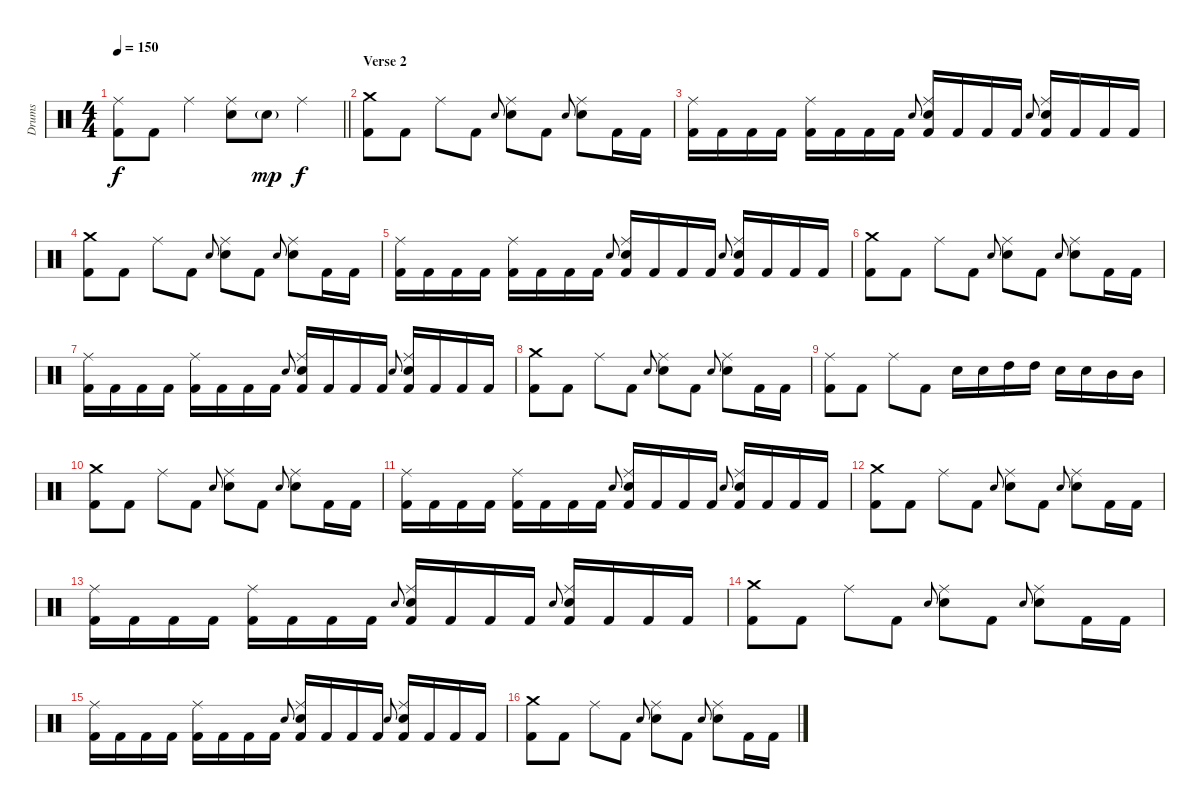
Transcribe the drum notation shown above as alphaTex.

\track ("Drums" "Drums") {instrument percussion}
\staff {score}
\articulation defaults
\ts (4 4)
\tempo 150
\clef neutral
\barLineRight lightlight
\ks c
("Kick (hit) 2" "Ride (middle)").8{dy f} "Kick (hit) 2".8 "Ride (middle)".4 ("Snare (hit) 2" "Ride (middle)").8 "Snare (hit) 2"{g}.8{dy mp} "Ride (middle)".4{dy f} |
\section ("" "Verse 2")
("Kick (hit) 2" "Crash medium (hit)").8 "Kick (hit) 2".8 "Ride (middle)".8 "Kick (hit) 2".8 "Snare (hit) 2".8{gr onbeat} ("Snare (hit) 2" "Ride (middle)").8 "Kick (hit) 2".8 "Snare (hit) 2".8{gr onbeat} ("Snare (hit) 2" "Ride (middle)").8 "Kick (hit) 2".16 "Kick (hit) 2".16 |
("Kick (hit) 2" "Ride (middle)").16 "Kick (hit) 2".16 "Kick (hit) 2".16 "Kick (hit) 2".16 ("Kick (hit) 2" "Ride (middle)").16 "Kick (hit) 2".16 "Kick (hit) 2".16 "Kick (hit) 2".16 "Snare (hit) 2".8{gr onbeat} ("Kick (hit) 2" "Snare (hit) 2" "Ride (middle)").16 "Kick (hit) 2".16 "Kick (hit) 2".16 "Kick (hit) 2".16 "Snare (hit) 2".8{gr onbeat} ("Kick (hit) 2" "Snare (hit) 2" "Ride (middle)").16 "Kick (hit) 2".16 "Kick (hit) 2".16 "Kick (hit) 2".16 |
("Kick (hit) 2" "Crash medium (hit)").8 "Kick (hit) 2".8 "Ride (middle)".8 "Kick (hit) 2".8 "Snare (hit) 2".8{gr onbeat} ("Snare (hit) 2" "Ride (middle)").8 "Kick (hit) 2".8 "Snare (hit) 2".8{gr onbeat} ("Snare (hit) 2" "Ride (middle)").8 "Kick (hit) 2".16 "Kick (hit) 2".16 |
("Kick (hit) 2" "Ride (middle)").16 "Kick (hit) 2".16 "Kick (hit) 2".16 "Kick (hit) 2".16 ("Kick (hit) 2" "Ride (middle)").16 "Kick (hit) 2".16 "Kick (hit) 2".16 "Kick (hit) 2".16 "Snare (hit) 2".8{gr onbeat} ("Kick (hit) 2" "Snare (hit) 2" "Ride (middle)").16 "Kick (hit) 2".16 "Kick (hit) 2".16 "Kick (hit) 2".16 "Snare (hit) 2".8{gr onbeat} ("Kick (hit) 2" "Snare (hit) 2" "Ride (middle)").16 "Kick (hit) 2".16 "Kick (hit) 2".16 "Kick (hit) 2".16 |
("Kick (hit) 2" "Crash medium (hit)").8 "Kick (hit) 2".8 "Ride (middle)".8 "Kick (hit) 2".8 "Snare (hit) 2".8{gr onbeat} ("Snare (hit) 2" "Ride (middle)").8 "Kick (hit) 2".8 "Snare (hit) 2".8{gr onbeat} ("Snare (hit) 2" "Ride (middle)").8 "Kick (hit) 2".16 "Kick (hit) 2".16 |
("Kick (hit) 2" "Ride (middle)").16 "Kick (hit) 2".16 "Kick (hit) 2".16 "Kick (hit) 2".16 ("Kick (hit) 2" "Ride (middle)").16 "Kick (hit) 2".16 "Kick (hit) 2".16 "Kick (hit) 2".16 "Snare (hit) 2".8{gr onbeat} ("Kick (hit) 2" "Snare (hit) 2" "Ride (middle)").16 "Kick (hit) 2".16 "Kick (hit) 2".16 "Kick (hit) 2".16 "Snare (hit) 2".8{gr onbeat} ("Kick (hit) 2" "Snare (hit) 2" "Ride (middle)").16 "Kick (hit) 2".16 "Kick (hit) 2".16 "Kick (hit) 2".16 |
("Kick (hit) 2" "Crash medium (hit)").8 "Kick (hit) 2".8 "Ride (middle)".8 "Kick (hit) 2".8 "Snare (hit) 2".8{gr onbeat} ("Snare (hit) 2" "Ride (middle)").8 "Kick (hit) 2".8 "Snare (hit) 2".8{gr onbeat} ("Snare (hit) 2" "Ride (middle)").8 "Kick (hit) 2".16 "Kick (hit) 2".16 |
("Kick (hit) 2" "Ride (middle)").8 "Kick (hit) 2".8 "Ride (middle)".8 "Kick (hit) 2".8 "Snare (hit) 2".16 "Snare (hit) 2".16 "High Tom (hit)".16 "High Tom (hit)".16 "Snare (hit) 2".16 "Snare (hit) 2".16 "Mid Tom (hit)".16 "Mid Tom (hit)".16 |
("Kick (hit) 2" "Crash medium (hit)").8 "Kick (hit) 2".8 "Ride (middle)".8 "Kick (hit) 2".8 "Snare (hit) 2".8{gr onbeat} ("Snare (hit) 2" "Ride (middle)").8 "Kick (hit) 2".8 "Snare (hit) 2".8{gr onbeat} ("Snare (hit) 2" "Ride (middle)").8 "Kick (hit) 2".16 "Kick (hit) 2".16 |
("Kick (hit) 2" "Ride (middle)").16 "Kick (hit) 2".16 "Kick (hit) 2".16 "Kick (hit) 2".16 ("Kick (hit) 2" "Ride (middle)").16 "Kick (hit) 2".16 "Kick (hit) 2".16 "Kick (hit) 2".16 "Snare (hit) 2".8{gr onbeat} ("Kick (hit) 2" "Snare (hit) 2" "Ride (middle)").16 "Kick (hit) 2".16 "Kick (hit) 2".16 "Kick (hit) 2".16 "Snare (hit) 2".8{gr onbeat} ("Kick (hit) 2" "Snare (hit) 2" "Ride (middle)").16 "Kick (hit) 2".16 "Kick (hit) 2".16 "Kick (hit) 2".16 |
("Kick (hit) 2" "Crash medium (hit)").8 "Kick (hit) 2".8 "Ride (middle)".8 "Kick (hit) 2".8 "Snare (hit) 2".8{gr onbeat} ("Snare (hit) 2" "Ride (middle)").8 "Kick (hit) 2".8 "Snare (hit) 2".8{gr onbeat} ("Snare (hit) 2" "Ride (middle)").8 "Kick (hit) 2".16 "Kick (hit) 2".16 |
("Kick (hit) 2" "Ride (middle)").16 "Kick (hit) 2".16 "Kick (hit) 2".16 "Kick (hit) 2".16 ("Kick (hit) 2" "Ride (middle)").16 "Kick (hit) 2".16 "Kick (hit) 2".16 "Kick (hit) 2".16 "Snare (hit) 2".8{gr onbeat} ("Kick (hit) 2" "Snare (hit) 2" "Ride (middle)").16 "Kick (hit) 2".16 "Kick (hit) 2".16 "Kick (hit) 2".16 "Snare (hit) 2".8{gr onbeat} ("Kick (hit) 2" "Snare (hit) 2" "Ride (middle)").16 "Kick (hit) 2".16 "Kick (hit) 2".16 "Kick (hit) 2".16 |
("Kick (hit) 2" "Crash medium (hit)").8 "Kick (hit) 2".8 "Ride (middle)".8 "Kick (hit) 2".8 "Snare (hit) 2".8{gr onbeat} ("Snare (hit) 2" "Ride (middle)").8 "Kick (hit) 2".8 "Snare (hit) 2".8{gr onbeat} ("Snare (hit) 2" "Ride (middle)").8 "Kick (hit) 2".16 "Kick (hit) 2".16 |
("Kick (hit) 2" "Ride (middle)").16 "Kick (hit) 2".16 "Kick (hit) 2".16 "Kick (hit) 2".16 ("Kick (hit) 2" "Ride (middle)").16 "Kick (hit) 2".16 "Kick (hit) 2".16 "Kick (hit) 2".16 "Snare (hit) 2".8{gr onbeat} ("Kick (hit) 2" "Snare (hit) 2" "Ride (middle)").16 "Kick (hit) 2".16 "Kick (hit) 2".16 "Kick (hit) 2".16 "Snare (hit) 2".8{gr onbeat} ("Kick (hit) 2" "Snare (hit) 2" "Ride (middle)").16 "Kick (hit) 2".16 "Kick (hit) 2".16 "Kick (hit) 2".16 |
("Kick (hit) 2" "Crash medium (hit)").8 "Kick (hit) 2".8 "Ride (middle)".8 "Kick (hit) 2".8 "Snare (hit) 2".8{gr onbeat} ("Snare (hit) 2" "Ride (middle)").8 "Kick (hit) 2".8 "Snare (hit) 2".8{gr onbeat} ("Snare (hit) 2" "Ride (middle)").8 "Kick (hit) 2".16 "Kick (hit) 2".16
